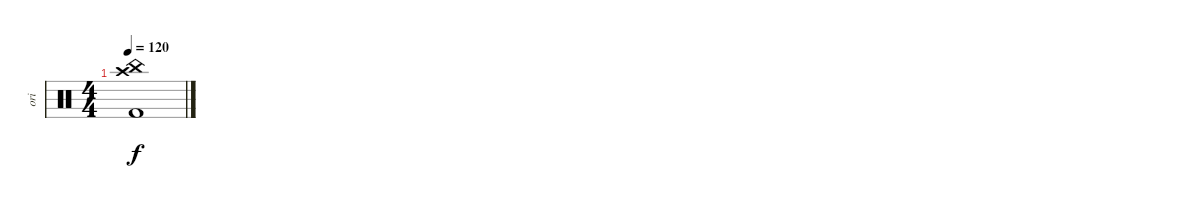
\track ("ori" "ori") {instrument percussion}
\staff {score}
\articulation defaults
\ts (4 4)
\tempo 120
\clef neutral
\ks c
("Crash high (hit)" "China (hit)" "Kick (hit) 2").1{dy f}
